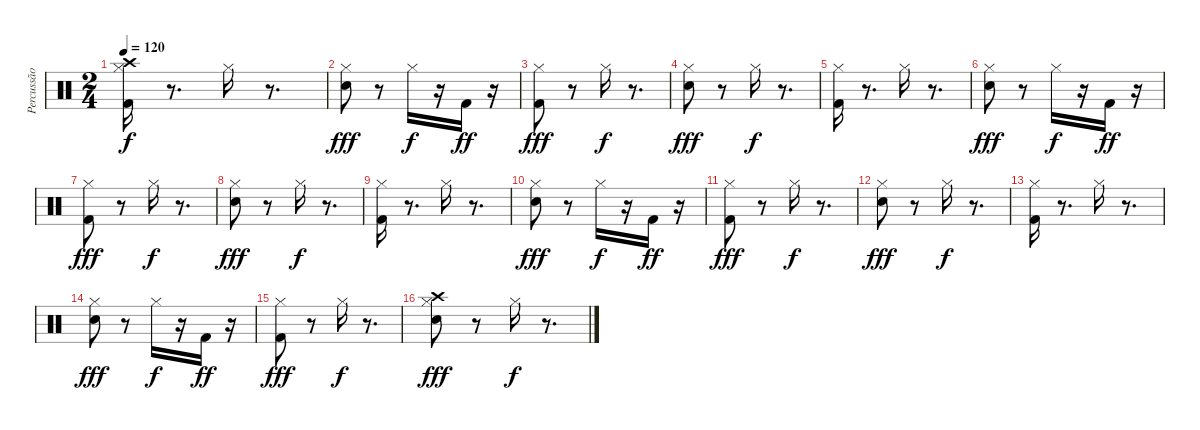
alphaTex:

\track ("Percussão" "Percussão") {instrument percussion}
\staff {score}
\articulation defaults
\ts (2 4)
\tempo 120
\clef neutral
\ks c
("Hi-Hat (closed)" "Kick (hit) 2" "Crash high (hit)").16{dy f} r.8{d} "Hi-Hat (closed)".16 r.8{d} |
("Snare (hit) 2" "Hi-Hat (closed)").8{dy fff} r.8 "Hi-Hat (closed)".16{dy f} r.16 "Kick (hit) 2".16{dy ff} r.16 |
("Kick (hit) 2" "Hi-Hat (closed)").8{dy fff} r.8 "Hi-Hat (closed)".16{dy f} r.8{d} |
("Snare (hit) 2" "Hi-Hat (closed)").8{dy fff} r.8 "Hi-Hat (closed)".16{dy f} r.8{d} |
("Kick (hit) 2" "Hi-Hat (closed)").16 r.8{d} "Hi-Hat (closed)".16 r.8{d} |
("Snare (hit) 2" "Hi-Hat (closed)").8{dy fff} r.8 "Hi-Hat (closed)".16{dy f} r.16 "Kick (hit) 2".16{dy ff} r.16 |
("Kick (hit) 2" "Hi-Hat (closed)").8{dy fff} r.8 "Hi-Hat (closed)".16{dy f} r.8{d} |
("Snare (hit) 2" "Hi-Hat (closed)").8{dy fff} r.8 "Hi-Hat (closed)".16{dy f} r.8{d} |
("Kick (hit) 2" "Hi-Hat (closed)").16 r.8{d} "Hi-Hat (closed)".16 r.8{d} |
("Snare (hit) 2" "Hi-Hat (closed)").8{dy fff} r.8 "Hi-Hat (closed)".16{dy f} r.16 "Kick (hit) 2".16{dy ff} r.16 |
("Kick (hit) 2" "Hi-Hat (closed)").8{dy fff} r.8 "Hi-Hat (closed)".16{dy f} r.8{d} |
("Snare (hit) 2" "Hi-Hat (closed)").8{dy fff} r.8 "Hi-Hat (closed)".16{dy f} r.8{d} |
("Kick (hit) 2" "Hi-Hat (closed)").16 r.8{d} "Hi-Hat (closed)".16 r.8{d} |
("Snare (hit) 2" "Hi-Hat (closed)").8{dy fff} r.8 "Hi-Hat (closed)".16{dy f} r.16 "Kick (hit) 2".16{dy ff} r.16 |
("Kick (hit) 2" "Hi-Hat (closed)").8{dy fff} r.8 "Hi-Hat (closed)".16{dy f} r.8{d} |
("Crash high (hit)" "Snare (hit) 2" "Hi-Hat (closed)").8{dy fff} r.8 "Hi-Hat (closed)".16{dy f} r.8{d}
